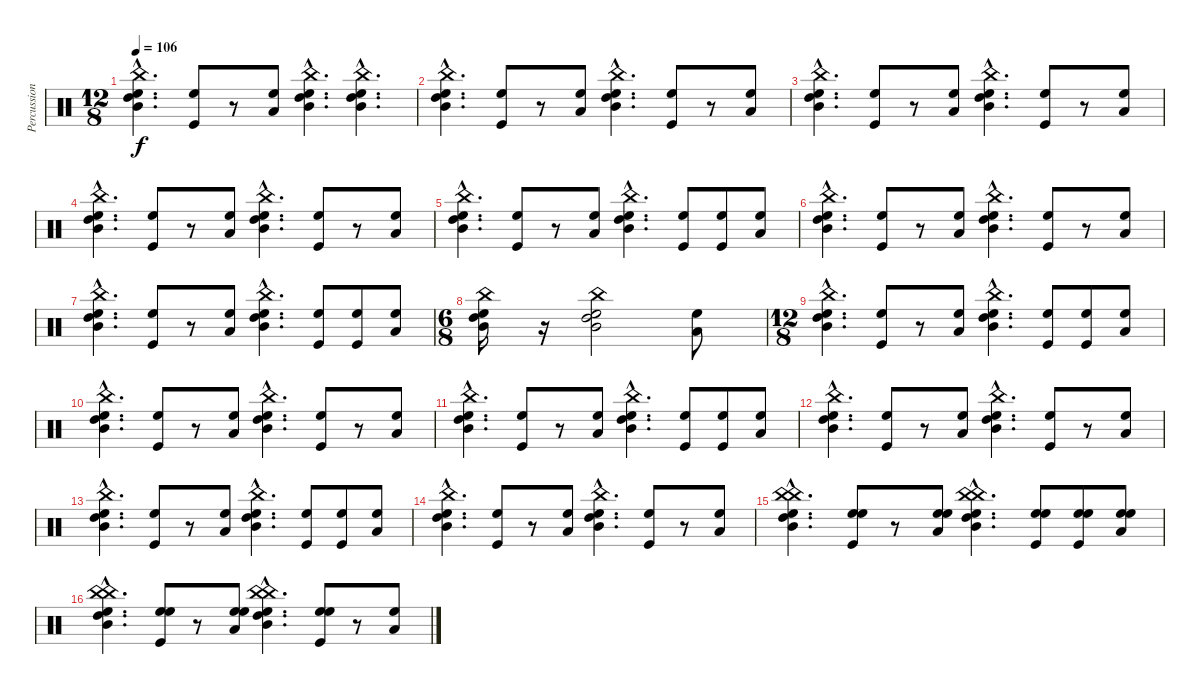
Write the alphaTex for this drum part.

\track ("Percussioni" "Percussion") {instrument percussion}
\staff {score}
\articulation defaults
\ts (12 8)
\tempo 106
\clef neutral
\ks c
("Mid Tom (hit)"{hac} "High Tom (hit)"{hac} "High Floor Tom (hit)"{hac} "China (hit)"{hac}).4{d dy f} ("Kick (hit)" "High Floor Tom (hit)").8 r.8 ("Low Tom (hit)" "High Floor Tom (hit)").8 ("Mid Tom (hit)"{hac} "High Tom (hit)"{hac} "High Floor Tom (hit)"{hac} "China (hit)"{hac}).4{d} ("Mid Tom (hit)"{hac} "High Tom (hit)"{hac} "High Floor Tom (hit)"{hac} "China (hit)"{hac}).4{d} |
("Mid Tom (hit)"{hac} "High Tom (hit)"{hac} "High Floor Tom (hit)"{hac} "China (hit)"{hac}).4{d} ("Kick (hit)" "High Floor Tom (hit)").8 r.8 ("Low Tom (hit)" "High Floor Tom (hit)").8 ("Mid Tom (hit)"{hac} "High Tom (hit)"{hac} "High Floor Tom (hit)"{hac} "China (hit)"{hac}).4{d} ("Kick (hit)" "High Floor Tom (hit)").8 r.8 ("Low Tom (hit)" "High Floor Tom (hit)").8 |
("Mid Tom (hit)"{hac} "High Tom (hit)"{hac} "High Floor Tom (hit)"{hac} "China (hit)"{hac}).4{d} ("Kick (hit)" "High Floor Tom (hit)").8 r.8 ("Low Tom (hit)" "High Floor Tom (hit)").8 ("Mid Tom (hit)"{hac} "High Tom (hit)"{hac} "High Floor Tom (hit)"{hac} "China (hit)"{hac}).4{d} ("Kick (hit)" "High Floor Tom (hit)").8 r.8 ("Low Tom (hit)" "High Floor Tom (hit)").8 |
("Mid Tom (hit)"{hac} "High Tom (hit)"{hac} "High Floor Tom (hit)"{hac} "China (hit)"{hac}).4{d} ("Kick (hit)" "High Floor Tom (hit)").8 r.8 ("Low Tom (hit)" "High Floor Tom (hit)").8 ("Mid Tom (hit)"{hac} "High Tom (hit)"{hac} "High Floor Tom (hit)"{hac} "China (hit)"{hac}).4{d} ("Kick (hit)" "High Floor Tom (hit)").8 r.8 ("Low Tom (hit)" "High Floor Tom (hit)").8 |
("Mid Tom (hit)"{hac} "High Tom (hit)"{hac} "High Floor Tom (hit)"{hac} "China (hit)"{hac}).4{d} ("Kick (hit)" "High Floor Tom (hit)").8 r.8 ("Low Tom (hit)" "High Floor Tom (hit)").8 ("Mid Tom (hit)"{hac} "High Tom (hit)"{hac} "High Floor Tom (hit)"{hac} "China (hit)"{hac}).4{d} ("Kick (hit)" "High Floor Tom (hit)").8 ("Kick (hit)" "High Floor Tom (hit)").8 ("Low Tom (hit)" "High Floor Tom (hit)").8 |
("Mid Tom (hit)"{hac} "High Tom (hit)"{hac} "High Floor Tom (hit)"{hac} "China (hit)"{hac}).4{d} ("Kick (hit)" "High Floor Tom (hit)").8 r.8 ("Low Tom (hit)" "High Floor Tom (hit)").8 ("Mid Tom (hit)"{hac} "High Tom (hit)"{hac} "High Floor Tom (hit)"{hac} "China (hit)"{hac}).4{d} ("Kick (hit)" "High Floor Tom (hit)").8 r.8 ("Low Tom (hit)" "High Floor Tom (hit)").8 |
("Mid Tom (hit)"{hac} "High Tom (hit)"{hac} "High Floor Tom (hit)"{hac} "China (hit)"{hac}).4{d} ("Kick (hit)" "High Floor Tom (hit)").8 r.8 ("Low Tom (hit)" "High Floor Tom (hit)").8 ("Mid Tom (hit)"{hac} "High Tom (hit)"{hac} "High Floor Tom (hit)"{hac} "China (hit)"{hac}).4{d} ("Kick (hit)" "High Floor Tom (hit)").8 ("Kick (hit)" "High Floor Tom (hit)").8 ("Low Tom (hit)" "High Floor Tom (hit)").8 |
\ts (6 8)
("Mid Tom (hit)" "High Tom (hit)" "High Floor Tom (hit)" "China (hit)").16 r.16 ("Mid Tom (hit)" "High Tom (hit)" "High Floor Tom (hit)" "China (hit)").2 ("Low Tom (hit)" "High Floor Tom (hit)").8 |
\ts (12 8)
("Mid Tom (hit)"{hac} "High Tom (hit)"{hac} "High Floor Tom (hit)"{hac} "China (hit)"{hac}).4{d} ("Kick (hit)" "High Floor Tom (hit)").8 r.8 ("Low Tom (hit)" "High Floor Tom (hit)").8 ("Mid Tom (hit)"{hac} "High Tom (hit)"{hac} "High Floor Tom (hit)"{hac} "China (hit)"{hac}).4{d} ("Kick (hit)" "High Floor Tom (hit)").8 ("Kick (hit)" "High Floor Tom (hit)").8 ("Low Tom (hit)" "High Floor Tom (hit)").8 |
("Mid Tom (hit)"{hac} "High Tom (hit)"{hac} "High Floor Tom (hit)"{hac} "China (hit)"{hac}).4{d} ("Kick (hit)" "High Floor Tom (hit)").8 r.8 ("Low Tom (hit)" "High Floor Tom (hit)").8 ("Mid Tom (hit)"{hac} "High Tom (hit)"{hac} "High Floor Tom (hit)"{hac} "China (hit)"{hac}).4{d} ("Kick (hit)" "High Floor Tom (hit)").8 r.8 ("Low Tom (hit)" "High Floor Tom (hit)").8 |
("Mid Tom (hit)"{hac} "High Tom (hit)"{hac} "High Floor Tom (hit)"{hac} "China (hit)"{hac}).4{d} ("Kick (hit)" "High Floor Tom (hit)").8 r.8 ("Low Tom (hit)" "High Floor Tom (hit)").8 ("Mid Tom (hit)"{hac} "High Tom (hit)"{hac} "High Floor Tom (hit)"{hac} "China (hit)"{hac}).4{d} ("Kick (hit)" "High Floor Tom (hit)").8 ("Kick (hit)" "High Floor Tom (hit)").8 ("Low Tom (hit)" "High Floor Tom (hit)").8 |
("Mid Tom (hit)"{hac} "High Tom (hit)"{hac} "High Floor Tom (hit)"{hac} "China (hit)"{hac}).4{d} ("Kick (hit)" "High Floor Tom (hit)").8 r.8 ("Low Tom (hit)" "High Floor Tom (hit)").8 ("Mid Tom (hit)"{hac} "High Tom (hit)"{hac} "High Floor Tom (hit)"{hac} "China (hit)"{hac}).4{d} ("Kick (hit)" "High Floor Tom (hit)").8 r.8 ("Low Tom (hit)" "High Floor Tom (hit)").8 |
("Mid Tom (hit)"{hac} "High Tom (hit)"{hac} "High Floor Tom (hit)"{hac} "China (hit)"{hac}).4{d} ("Kick (hit)" "High Floor Tom (hit)").8 r.8 ("Low Tom (hit)" "High Floor Tom (hit)").8 ("Mid Tom (hit)"{hac} "High Tom (hit)"{hac} "High Floor Tom (hit)"{hac} "China (hit)"{hac}).4{d} ("Kick (hit)" "High Floor Tom (hit)").8 ("Kick (hit)" "High Floor Tom (hit)").8 ("Low Tom (hit)" "High Floor Tom (hit)").8 |
("Mid Tom (hit)"{hac} "High Tom (hit)"{hac} "High Floor Tom (hit)"{hac} "China (hit)"{hac}).4{d} ("Kick (hit)" "High Floor Tom (hit)").8 r.8 ("Low Tom (hit)" "High Floor Tom (hit)").8 ("Mid Tom (hit)"{hac} "High Tom (hit)"{hac} "High Floor Tom (hit)"{hac} "China (hit)"{hac}).4{d} ("Kick (hit)" "High Floor Tom (hit)").8 r.8 ("Low Tom (hit)" "High Floor Tom (hit)").8 |
("Mid Tom (hit)"{hac} "High Tom (hit)"{hac} "High Floor Tom (hit)"{hac} "China (hit)"{hac} "China (hit)"{hac}).4{d} ("Kick (hit)" "High Floor Tom (hit)" "High Floor Tom (hit)").8 r.8 ("Low Tom (hit)" "High Floor Tom (hit)" "High Floor Tom (hit)").8 ("Mid Tom (hit)"{hac} "High Tom (hit)"{hac} "High Floor Tom (hit)"{hac} "China (hit)"{hac} "China (hit)"{hac}).4{d} ("Kick (hit)" "High Floor Tom (hit)" "High Floor Tom (hit)").8 ("Kick (hit)" "High Floor Tom (hit)" "High Floor Tom (hit)").8 ("Low Tom (hit)" "High Floor Tom (hit)" "High Floor Tom (hit)").8 |
("Mid Tom (hit)"{hac} "High Tom (hit)"{hac} "High Floor Tom (hit)"{hac} "China (hit)"{hac} "China (hit)"{hac}).4{d} ("Kick (hit)" "High Floor Tom (hit)" "High Floor Tom (hit)").8 r.8 ("Low Tom (hit)" "High Floor Tom (hit)" "High Floor Tom (hit)").8 ("Mid Tom (hit)"{hac} "High Tom (hit)"{hac} "High Floor Tom (hit)"{hac} "China (hit)"{hac} "China (hit)"{hac}).4{d} ("Kick (hit)" "High Floor Tom (hit)" "High Floor Tom (hit)").8 r.8 ("Low Tom (hit)" "High Floor Tom (hit)").8
